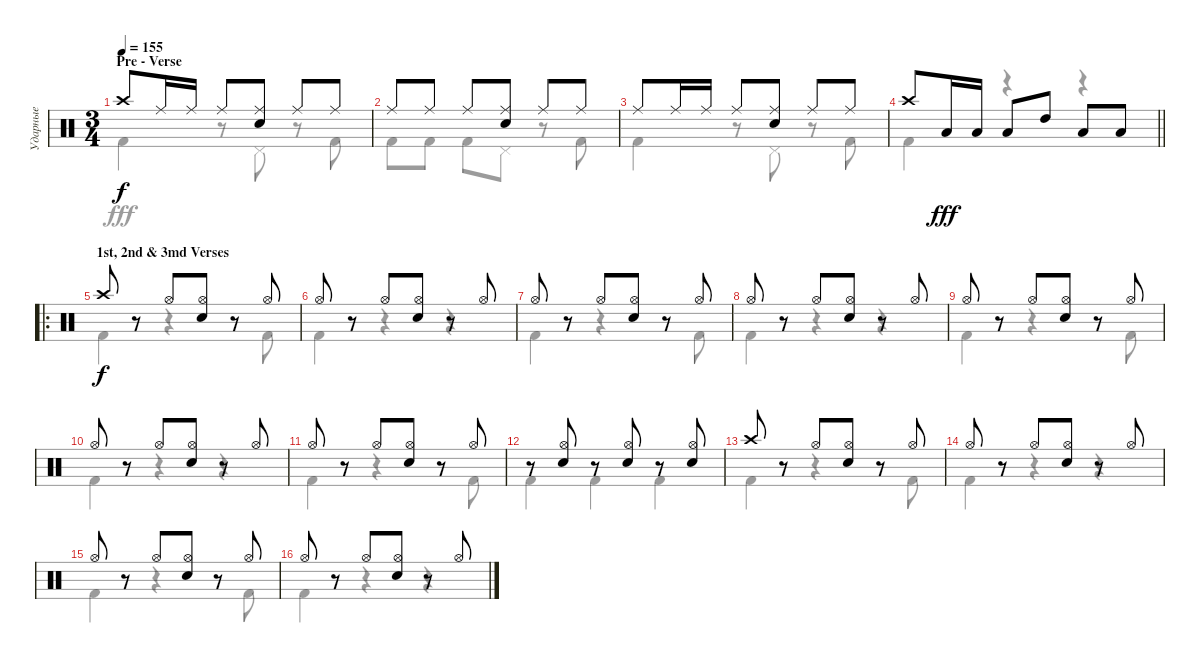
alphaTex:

\track ("Ударные" "Ударные") {instrument percussion}
\staff {score}
\articulation defaults
\voice
\ts (3 4)
\section ("" "Pre - Verse")
\tempo 155
\clef neutral
\ks c "Crash high (hit)".8{dy f} "Ride (middle)".16 "Ride (middle)".16 "Ride (middle)".8
("Ride (middle)" "Electric Snare (hit)").8 "Ride (middle)".8 "Ride (middle)".8 |
"Ride (middle)".8 "Ride (middle)".8 "Ride (middle)".8 ("Ride (middle)" "Electric Snare (hit)").8 "Ride (middle)".8 "Ride (middle)".8 |
"Ride (middle)".8 "Ride (middle)".16 "Ride (middle)".16 "Ride (middle)".8 ("Ride (middle)" "Electric Snare (hit)").8 "Ride (middle)".8 "Ride (middle)".8 |
\barLineRight lightlight "Crash high (hit)".8 "Low Floor Tom (hit)".16{dy fff} "Low Floor Tom (hit)".16 "Low Floor Tom (hit)".8 "High Tom (hit)".8 "Low Tom (hit)".8 "Low Floor Tom (hit)".8
|
\ro
\section ("" "1st, 2nd & 3md Verses")
"Crash high (hit)".8{dy f} r.8 "Hi-Hat (open)".8 ("Hi-Hat (open)" "Electric Snare (hit)").8 r.8 "Hi-Hat (open)".8 |
"Hi-Hat (open)".8 r.8 "Hi-Hat (open)".8 ("Hi-Hat (open)" "Electric Snare (hit)").8 r.8 "Hi-Hat (open)".8 |
"Hi-Hat (open)".8 r.8 "Hi-Hat (open)".8 ("Hi-Hat (open)" "Electric Snare (hit)").8 r.8 "Hi-Hat (open)".8 |
"Hi-Hat (open)".8 r.8 "Hi-Hat (open)".8 ("Hi-Hat (open)" "Electric Snare (hit)").8 r.8 "Hi-Hat (open)".8 |
"Hi-Hat (open)".8 r.8 "Hi-Hat (open)".8 ("Hi-Hat (open)" "Electric Snare (hit)").8 r.8 "Hi-Hat (open)".8 |
"Hi-Hat (open)".8 r.8 "Hi-Hat (open)".8 ("Hi-Hat (open)" "Electric Snare (hit)").8 r.8 "Hi-Hat (open)".8 |
"Hi-Hat (open)".8 r.8 "Hi-Hat (open)".8 ("Hi-Hat (open)" "Electric Snare (hit)").8 r.8 "Hi-Hat (open)".8 |
r.8 ("Hi-Hat (open)" "Electric Snare (hit)").8 r.8 ("Hi-Hat (open)" "Electric Snare (hit)").8 r.8 ("Hi-Hat (open)" "Electric Snare (hit)").8 |
"Crash high (hit)".8 r.8 "Hi-Hat (open)".8 ("Hi-Hat (open)" "Electric Snare (hit)").8 r.8 "Hi-Hat (open)".8 |
"Hi-Hat (open)".8 r.8 "Hi-Hat (open)".8 ("Hi-Hat (open)" "Electric Snare (hit)").8 r.8 "Hi-Hat (open)".8 |
"Hi-Hat (open)".8 r.8 "Hi-Hat (open)".8 ("Hi-Hat (open)" "Electric Snare (hit)").8 r.8 "Hi-Hat (open)".8 |
"Hi-Hat (open)".8 r.8 "Hi-Hat (open)".8 ("Hi-Hat (open)" "Electric Snare (hit)").8 r.8 "Hi-Hat (open)".8
\voice
\clef neutral
\ottava regular
\simile none
\ks c "Kick (hit) 2".4{dy fff}
r.8 "Pedal Hi-Hat (hit)".8 r.8 "Kick (hit) 2".8 |
"Kick (hit) 2".8 "Kick (hit) 2".8 "Kick (hit) 2".8 "Pedal Hi-Hat (hit)".8 r.8 "Kick (hit) 2".8 |
"Kick (hit) 2".4 r.8 "Pedal Hi-Hat (hit)".8 r.8 "Kick (hit) 2".8 |
\barLineRight lightlight "Kick (hit) 2".4
r.4 r.4 |
"Kick (hit) 2".4 r.4 r.8 "Kick (hit) 2".8 |
"Kick (hit) 2".4 r.4 r.4 |
"Kick (hit) 2".4 r.4 r.8 "Kick (hit) 2".8 |
"Kick (hit) 2".4 r.4 r.4 |
"Kick (hit) 2".4 r.4 r.8 "Kick (hit) 2".8 |
"Kick (hit) 2".4 r.4 r.4 |
"Kick (hit) 2".4 r.4 r.8 "Kick (hit) 2".8 |
"Kick (hit) 2".4 "Kick (hit) 2".4 "Kick (hit) 2".4 |
"Kick (hit) 2".4 r.4 r.8 "Kick (hit) 2".8 |
"Kick (hit) 2".4 r.4 r.4 |
"Kick (hit) 2".4 r.4 r.8 "Kick (hit) 2".8 |
"Kick (hit) 2".4 r.4 r.4
